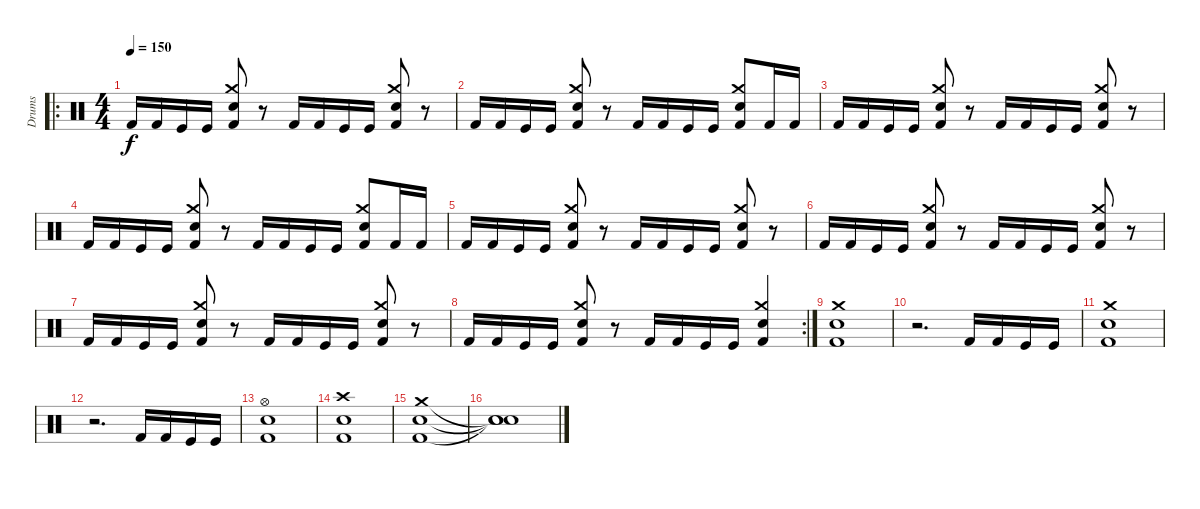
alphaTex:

\track ("Drums" "Drums") {instrument percussion}
\staff {score}
\articulation defaults
\ro
\ts (4 4)
\tempo 150
\clef neutral
\ks c "Kick (hit) 2".16{dy f} "Kick (hit) 2".16 "Kick (hit)".16 "Kick (hit)".16
("Crash medium (hit)" "Snare (hit) 2" "Kick (hit) 2").8 r.8 "Kick (hit) 2".16 "Kick (hit) 2".16 "Kick (hit)".16 "Kick (hit)".16 ("Crash medium (hit)" "Snare (hit) 2" "Kick (hit) 2").8 r.8 |
"Kick (hit) 2".16 "Kick (hit) 2".16 "Kick (hit)".16 "Kick (hit)".16 ("Crash medium (hit)" "Snare (hit) 2" "Kick (hit) 2").8 r.8 "Kick (hit) 2".16 "Kick (hit) 2".16 "Kick (hit)".16 "Kick (hit)".16 ("Crash medium (hit)" "Snare (hit) 2" "Kick (hit) 2").8 "Kick (hit) 2".16 "Kick (hit) 2".16 |
"Kick (hit) 2".16 "Kick (hit) 2".16 "Kick (hit)".16 "Kick (hit)".16 ("Crash medium (hit)" "Snare (hit) 2" "Kick (hit) 2").8 r.8 "Kick (hit) 2".16 "Kick (hit) 2".16 "Kick (hit)".16 "Kick (hit)".16 ("Crash medium (hit)" "Snare (hit) 2" "Kick (hit) 2").8 r.8 |
"Kick (hit) 2".16 "Kick (hit) 2".16 "Kick (hit)".16 "Kick (hit)".16 ("Crash medium (hit)" "Snare (hit) 2" "Kick (hit) 2").8 r.8 "Kick (hit) 2".16 "Kick (hit) 2".16 "Kick (hit)".16 "Kick (hit)".16 ("Crash medium (hit)" "Snare (hit) 2" "Kick (hit) 2").8 "Kick (hit) 2".16 "Kick (hit) 2".16 |
"Kick (hit) 2".16 "Kick (hit) 2".16 "Kick (hit)".16 "Kick (hit)".16 ("Crash medium (hit)" "Snare (hit) 2" "Kick (hit) 2").8 r.8 "Kick (hit) 2".16 "Kick (hit) 2".16 "Kick (hit)".16 "Kick (hit)".16 ("Crash medium (hit)" "Snare (hit) 2" "Kick (hit) 2").8 r.8 |
"Kick (hit) 2".16 "Kick (hit) 2".16 "Kick (hit)".16 "Kick (hit)".16 ("Crash medium (hit)" "Snare (hit) 2" "Kick (hit) 2").8 r.8 "Kick (hit) 2".16 "Kick (hit) 2".16 "Kick (hit)".16 "Kick (hit)".16 ("Crash medium (hit)" "Snare (hit) 2" "Kick (hit) 2").8 r.8 |
"Kick (hit) 2".16 "Kick (hit) 2".16 "Kick (hit)".16 "Kick (hit)".16 ("Crash medium (hit)" "Snare (hit) 2" "Kick (hit) 2").8 r.8 "Kick (hit) 2".16 "Kick (hit) 2".16 "Kick (hit)".16 "Kick (hit)".16 ("Crash medium (hit)" "Snare (hit) 2" "Kick (hit) 2").8 r.8 |
\rc 2 "Kick (hit) 2".16 "Kick (hit) 2".16 "Kick (hit)".16 "Kick (hit)".16
("Crash medium (hit)" "Snare (hit) 2" "Kick (hit) 2").8 r.8 "Kick (hit) 2".16 "Kick (hit) 2".16 "Kick (hit)".16 "Kick (hit)".16 ("Crash medium (hit)" "Snare (hit) 2" "Kick (hit) 2").4 |
("Crash medium (hit)" "Snare (hit) 2" "Kick (hit) 2").1 |
r.2{d} "Kick (hit) 2".16 "Kick (hit) 2".16 "Kick (hit)".16 "Kick (hit)".16 |
("Crash medium (hit)" "Snare (hit) 2" "Kick (hit) 2").1 |
r.2{d} "Kick (hit) 2".16 "Kick (hit) 2".16 "Kick (hit)".16 "Kick (hit)".16 |
("Hi-Hat (open)" "Snare (hit) 2" "Kick (hit) 2").1 |
("Crash high (hit)" "Snare (hit) 2" "Kick (hit) 2").1 |
("Crash medium (hit)" "Snare (hit) 2" "Kick (hit) 2").1 |
("Snare (hit)"{t} "Snare (hit)"{t} "Snare (hit)"{t}).1
